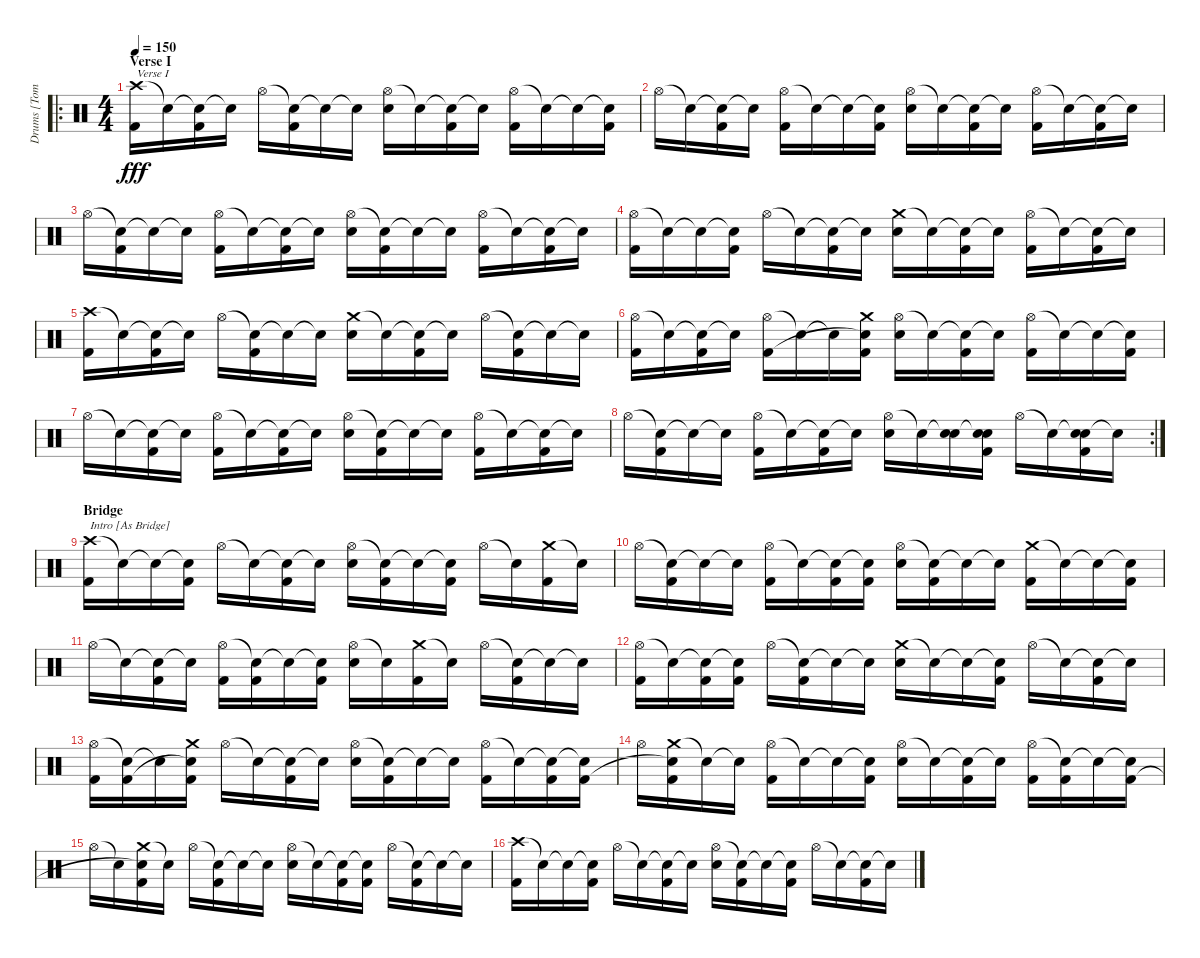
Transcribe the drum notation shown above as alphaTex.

\track ("Drums [Tomas Haake]" "Drums [Tom") {instrument percussion}
\staff {score}
\articulation defaults
\ro
\ts (4 4)
\section ("" "Verse I")
\tempo 150
\clef neutral
\ks c
("Crash high (hit)" "Kick (hit) 2").16{txt "Verse I" dy fff} "Snare (hit)"{t}.16 ("Snare (hit)"{t} "Kick (hit) 2").16 "Snare (hit)"{t}.16 "Hi-Hat (open)".16 ("Snare (hit)"{t} "Kick (hit) 2").16 "Snare (hit)"{t}.16 "Snare (hit)"{t}.16 ("Hi-Hat (open)" "Electric Snare (hit)").16 "Snare (hit)"{t}.16 ("Snare (hit)"{t} "Kick (hit) 2").16 "Snare (hit)"{t}.16 ("Hi-Hat (open)" "Kick (hit) 2").16 "Snare (hit)"{t}.16 "Snare (hit)"{t}.16 ("Snare (hit)"{t} "Kick (hit) 2").16 |
"Hi-Hat (open)".16 "Snare (hit)"{t}.16 ("Snare (hit)"{t} "Kick (hit) 2").16 "Snare (hit)"{t}.16 ("Hi-Hat (open)" "Kick (hit) 2").16 "Snare (hit)"{t}.16 "Snare (hit)"{t}.16 ("Snare (hit)"{t} "Kick (hit) 2").16 ("Hi-Hat (open)" "Electric Snare (hit)").16 "Snare (hit)"{t}.16 ("Snare (hit)"{t} "Kick (hit) 2").16 "Snare (hit)"{t}.16 ("Hi-Hat (open)" "Kick (hit) 2").16 "Snare (hit)"{t}.16 ("Snare (hit)"{t} "Kick (hit) 2").16 "Snare (hit)"{t}.16 |
"Hi-Hat (open)".16 ("Snare (hit)"{t} "Kick (hit) 2").16 "Snare (hit)"{t}.16 "Snare (hit)"{t}.16 ("Hi-Hat (open)" "Kick (hit) 2").16 "Snare (hit)"{t}.16 ("Snare (hit)"{t} "Kick (hit) 2").16 "Snare (hit)"{t}.16 ("Hi-Hat (open)" "Electric Snare (hit)").16 ("Snare (hit)"{t} "Kick (hit) 2").16 "Snare (hit)"{t}.16 "Snare (hit)"{t}.16 ("Hi-Hat (open)" "Kick (hit) 2").16 "Snare (hit)"{t}.16 ("Snare (hit)"{t} "Kick (hit) 2").16 "Snare (hit)"{t}.16 |
("Hi-Hat (open)" "Kick (hit) 2").16 "Snare (hit)"{t}.16 "Snare (hit)"{t}.16 ("Snare (hit)"{t} "Kick (hit) 2").16 "Hi-Hat (open)".16 "Snare (hit)"{t}.16 ("Snare (hit)"{t} "Kick (hit) 2").16 "Snare (hit)"{t}.16 ("Crash medium (hit)" "Electric Snare (hit)").16 "Snare (hit)"{t}.16 ("Snare (hit)"{t} "Kick (hit) 2").16 "Snare (hit)"{t}.16 ("Hi-Hat (open)" "Kick (hit) 2").16 "Snare (hit)"{t}.16 ("Snare (hit)"{t} "Kick (hit) 2").16 "Snare (hit)"{t}.16 |
("Crash high (hit)" "Kick (hit) 2").16 "Snare (hit)"{t}.16 ("Snare (hit)"{t} "Kick (hit) 2").16 "Snare (hit)"{t}.16 "Hi-Hat (open)".16 ("Snare (hit)"{t} "Kick (hit) 2").16 "Snare (hit)"{t}.16 "Snare (hit)"{t}.16 ("Crash medium (hit)" "Electric Snare (hit)").16 "Snare (hit)"{t}.16 ("Snare (hit)"{t} "Kick (hit) 2").16 "Snare (hit)"{t}.16 "Hi-Hat (open)".16 ("Snare (hit)"{t} "Kick (hit) 2").16 "Snare (hit)"{t}.16 "Snare (hit)"{t}.16 |
("Hi-Hat (open)" "Kick (hit) 2").16 "Snare (hit)"{t}.16 ("Snare (hit)"{t} "Kick (hit) 2").16 "Snare (hit)"{t}.16 ("Hi-Hat (open)" "Kick (hit) 2").16 "Snare (hit)"{t}.16 "Snare (hit)"{t}.16 ("Crash medium (hit)" "Snare (hit)"{t} "Kick (hit) 2").16 ("Hi-Hat (open)" "Electric Snare (hit)").16 "Snare (hit)"{t}.16 ("Snare (hit)"{t} "Kick (hit) 2").16 "Snare (hit)"{t}.16 ("Hi-Hat (open)" "Kick (hit) 2").16 "Snare (hit)"{t}.16 "Snare (hit)"{t}.16 ("Snare (hit)"{t} "Kick (hit) 2").16 |
"Hi-Hat (open)".16 "Snare (hit)"{t}.16 ("Snare (hit)"{t} "Kick (hit) 2").16 "Snare (hit)"{t}.16 ("Hi-Hat (open)" "Kick (hit) 2").16 "Snare (hit)"{t}.16 ("Snare (hit)"{t} "Kick (hit) 2").16 "Snare (hit)"{t}.16 ("Hi-Hat (open)" "Electric Snare (hit)").16 ("Snare (hit)"{t} "Kick (hit) 2").16 "Snare (hit)"{t}.16 "Snare (hit)"{t}.16 ("Hi-Hat (open)" "Kick (hit) 2").16 "Snare (hit)"{t}.16 ("Snare (hit)"{t} "Kick (hit) 2").16 "Snare (hit)"{t}.16 |
\rc 2 "Hi-Hat (open)".16
("Snare (hit)"{t} "Kick (hit) 2").16 "Snare (hit)"{t}.16 "Snare (hit)"{t}.16 ("Hi-Hat (open)" "Kick (hit) 2").16 "Snare (hit)"{t}.16 ("Snare (hit)"{t} "Kick (hit) 2").16 "Snare (hit)"{t}.16 ("Hi-Hat (open)" "Electric Snare (hit)").16 "Snare (hit)"{t}.16 ("Snare (hit)"{t} "Electric Snare (hit)").16 ("Snare (hit)"{t} "Electric Snare (hit)" "Kick (hit) 2").16 "Hi-Hat (open)".16 "Snare (hit)"{t}.16 ("Snare (hit)"{t} "Electric Snare (hit)" "Kick (hit) 2").16 "Snare (hit)"{t}.16 |
\section ("" "Bridge")
("Crash high (hit)" "Kick (hit) 2").16{txt "Intro [As Bridge]"} "Snare (hit)"{t}.16 "Snare (hit)"{t}.16 ("Snare (hit)"{t} "Kick (hit) 2").16 "Hi-Hat (open)".16 "Snare (hit)"{t}.16 ("Snare (hit)"{t} "Kick (hit) 2").16 "Snare (hit)"{t}.16 ("Hi-Hat (open)" "Electric Snare (hit)").16 ("Snare (hit)"{t} "Kick (hit) 2").16 "Snare (hit)"{t}.16 ("Snare (hit)"{t} "Kick (hit) 2").16 "Hi-Hat (open)".16 "Snare (hit)"{t}.16 ("Crash medium (hit)" "Kick (hit) 2").16 "Snare (hit)"{t}.16 |
"Hi-Hat (open)".16 ("Snare (hit)"{t} "Kick (hit) 2").16 "Snare (hit)"{t}.16 "Snare (hit)"{t}.16 ("Hi-Hat (open)" "Kick (hit) 2").16 "Snare (hit)"{t}.16 ("Snare (hit)"{t} "Kick (hit) 2").16 ("Snare (hit)"{t} "Kick (hit) 2").16 ("Hi-Hat (open)" "Electric Snare (hit)").16 ("Snare (hit)"{t} "Kick (hit) 2").16 "Snare (hit)"{t}.16 "Snare (hit)"{t}.16 ("Crash medium (hit)" "Kick (hit) 2").16 "Snare (hit)"{t}.16 "Snare (hit)"{t}.16 ("Snare (hit)"{t} "Kick (hit) 2").16 |
"Hi-Hat (open)".16 "Snare (hit)"{t}.16 ("Snare (hit)"{t} "Kick (hit) 2").16 "Snare (hit)"{t}.16 ("Hi-Hat (open)" "Kick (hit) 2").16 ("Snare (hit)"{t} "Kick (hit) 2").16 "Snare (hit)"{t}.16 ("Snare (hit)"{t} "Kick (hit) 2").16 ("Hi-Hat (open)" "Electric Snare (hit)").16 "Snare (hit)"{t}.16 ("Crash medium (hit)" "Kick (hit) 2").16 "Snare (hit)"{t}.16 "Hi-Hat (open)".16 ("Snare (hit)"{t} "Kick (hit) 2").16 "Snare (hit)"{t}.16 "Snare (hit)"{t}.16 |
("Hi-Hat (open)" "Kick (hit) 2").16 "Snare (hit)"{t}.16 ("Snare (hit)"{t} "Kick (hit) 2").16 ("Snare (hit)"{t} "Kick (hit) 2").16 "Hi-Hat (open)".16 ("Snare (hit)"{t} "Kick (hit) 2").16 "Snare (hit)"{t}.16 "Snare (hit)"{t}.16 ("Crash medium (hit)" "Electric Snare (hit)").16 "Snare (hit)"{t}.16 "Snare (hit)"{t}.16 ("Snare (hit)"{t} "Kick (hit) 2").16 "Hi-Hat (open)".16 "Snare (hit)"{t}.16 ("Snare (hit)"{t} "Kick (hit) 2").16 "Snare (hit)"{t}.16 |
("Hi-Hat (open)" "Kick (hit) 2").16 ("Snare (hit)"{t} "Kick (hit) 2").16 "Snare (hit)"{t}.16 ("Crash medium (hit)" "Snare (hit)"{t} "Kick (hit) 2").16 "Hi-Hat (open)".16 "Snare (hit)"{t}.16 ("Snare (hit)"{t} "Kick (hit) 2").16 "Snare (hit)"{t}.16 ("Hi-Hat (open)" "Electric Snare (hit)").16 ("Snare (hit)"{t} "Kick (hit) 2").16 "Snare (hit)"{t}.16 "Snare (hit)"{t}.16 ("Hi-Hat (open)" "Kick (hit) 2").16 "Snare (hit)"{t}.16 ("Snare (hit)"{t} "Kick (hit) 2").16 ("Snare (hit)"{t} "Kick (hit) 2").16 |
"Hi-Hat (open)".16 ("Crash medium (hit)" "Snare (hit)"{t} "Kick (hit) 2").16 "Snare (hit)"{t}.16 "Snare (hit)"{t}.16 ("Hi-Hat (open)" "Kick (hit) 2").16 "Snare (hit)"{t}.16 "Snare (hit)"{t}.16 ("Snare (hit)"{t} "Kick (hit) 2").16 ("Hi-Hat (open)" "Electric Snare (hit)").16 "Snare (hit)"{t}.16 ("Snare (hit)"{t} "Kick (hit) 2").16 "Snare (hit)"{t}.16 ("Hi-Hat (open)" "Kick (hit) 2").16 ("Snare (hit)"{t} "Kick (hit) 2").16 "Snare (hit)"{t}.16 ("Snare (hit)"{t} "Kick (hit) 2").16 |
"Hi-Hat (open)".16 "Snare (hit)"{t}.16 ("Crash medium (hit)" "Snare (hit)"{t} "Kick (hit) 2").16 "Snare (hit)"{t}.16 "Hi-Hat (open)".16 ("Snare (hit)"{t} "Kick (hit) 2").16 "Snare (hit)"{t}.16 "Snare (hit)"{t}.16 ("Hi-Hat (open)" "Electric Snare (hit)").16 "Snare (hit)"{t}.16 ("Snare (hit)"{t} "Kick (hit) 2").16 ("Snare (hit)"{t} "Kick (hit) 2").16 "Hi-Hat (open)".16 ("Snare (hit)"{t} "Kick (hit) 2").16 "Snare (hit)"{t}.16 "Snare (hit)"{t}.16 |
("Crash high (hit)" "Kick (hit) 2").16 "Snare (hit)"{t}.16 "Snare (hit)"{t}.16 ("Snare (hit)"{t} "Kick (hit) 2").16 "Hi-Hat (open)".16 "Snare (hit)"{t}.16 ("Snare (hit)"{t} "Kick (hit) 2").16 "Snare (hit)"{t}.16 ("Hi-Hat (open)" "Electric Snare (hit)").16 ("Snare (hit)"{t} "Kick (hit) 2").16 "Snare (hit)"{t}.16 ("Snare (hit)"{t} "Kick (hit) 2").16 "Hi-Hat (open)".16 "Snare (hit)"{t}.16 ("Snare (hit)"{t} "Kick (hit) 2").16 "Snare (hit)"{t}.16
